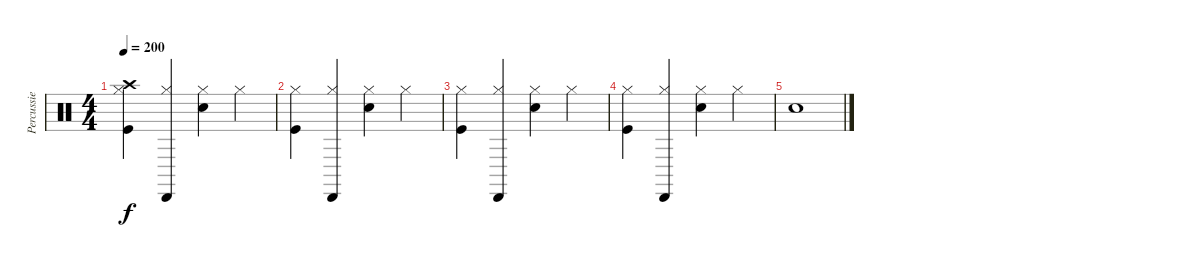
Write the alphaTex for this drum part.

\track ("Percussie" "Percussie") {instrument percussion}
\staff {score}
\articulation defaults
\ts (4 4)
\tempo 200
\clef neutral
\ks c
("Crash high (hit)" "Hi-Hat (closed)" "Kick (hit)").4{dy f} ("Cabasa (hit)" "Hi-Hat (closed)").4 ("Electric Snare (hit)" "Hi-Hat (closed)").4 "Hi-Hat (closed)".4 |
("Hi-Hat (closed)" "Kick (hit)").4 ("Cabasa (hit)" "Hi-Hat (closed)").4 ("Electric Snare (hit)" "Hi-Hat (closed)").4 "Hi-Hat (closed)".4 |
("Hi-Hat (closed)" "Kick (hit)").4 ("Cabasa (hit)" "Hi-Hat (closed)").4 ("Electric Snare (hit)" "Hi-Hat (closed)").4 "Hi-Hat (closed)".4 |
("Hi-Hat (closed)" "Kick (hit)").4 ("Cabasa (hit)" "Hi-Hat (closed)").4 ("Electric Snare (hit)" "Hi-Hat (closed)").4 "Hi-Hat (closed)".4 |
"Electric Snare (hit)".1
